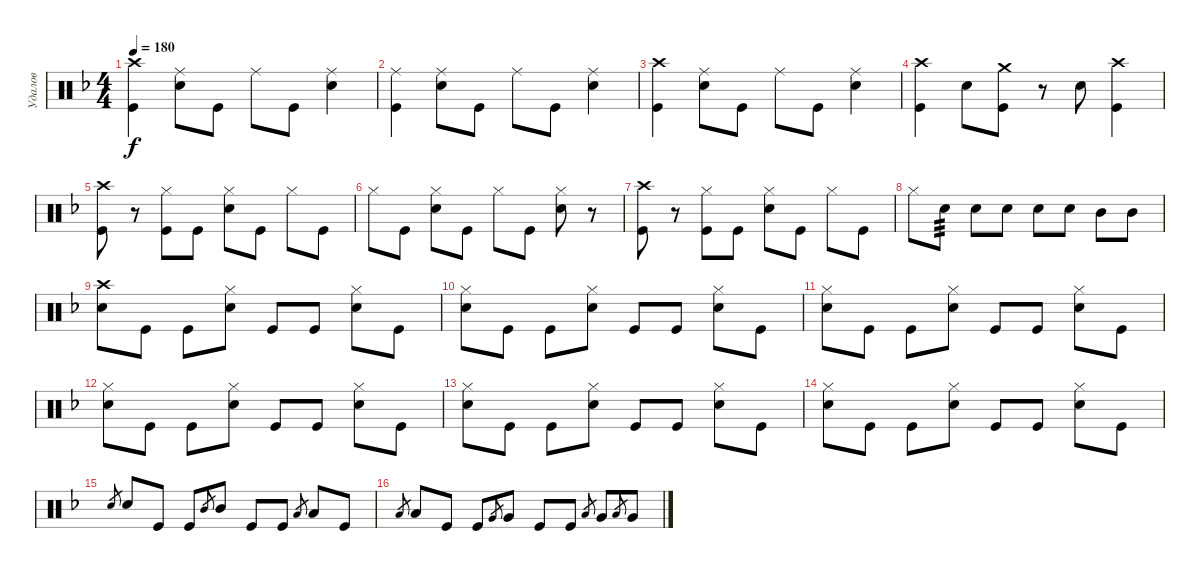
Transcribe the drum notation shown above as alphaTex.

\track ("Удалов" "Удалов") {instrument percussion}
\staff {score}
\articulation defaults
\ts (4 4)
\tempo 180
\clef neutral
\ks f
("Crash high (hit)" "Kick (hit)").4{dy f} ("Ride (middle)" "Electric Snare (hit)").8 "Kick (hit)".8 "Ride (middle)".8 "Kick (hit)".8 ("Ride (middle)" "Electric Snare (hit)").4 |
("Ride (middle)" "Kick (hit)").4 ("Ride (middle)" "Electric Snare (hit)").8 "Kick (hit)".8 "Ride (middle)".8 "Kick (hit)".8 ("Ride (middle)" "Electric Snare (hit)").4 |
("Crash high (hit)" "Kick (hit)").4 ("Ride (middle)" "Electric Snare (hit)").8 "Kick (hit)".8 "Ride (middle)".8 "Kick (hit)".8 ("Ride (middle)" "Electric Snare (hit)").4 |
("Crash high (hit)" "Kick (hit)").4 "Electric Snare (hit)".8 ("Crash medium (hit)" "Kick (hit)").8 r.8 "Electric Snare (hit)".8 ("Crash high (hit)" "Kick (hit)").4 |
("Crash high (hit)" "Kick (hit)").8 r.8 ("Hi-Hat (closed)" "Kick (hit)").8 "Kick (hit)".8 ("Hi-Hat (closed)" "Electric Snare (hit)").8 "Kick (hit)".8 "Hi-Hat (closed)".8 "Kick (hit)".8 |
"Hi-Hat (closed)".8 "Kick (hit)".8 ("Hi-Hat (closed)" "Electric Snare (hit)").8 "Kick (hit)".8 "Hi-Hat (closed)".8 "Kick (hit)".8 ("Hi-Hat (closed)" "Electric Snare (hit)").8 r.8 |
("Crash high (hit)" "Kick (hit)").8 r.8 ("Hi-Hat (closed)" "Kick (hit)").8 "Kick (hit)".8 ("Hi-Hat (closed)" "Electric Snare (hit)").8 "Kick (hit)".8 "Hi-Hat (closed)".8 "Kick (hit)".8 |
"Hi-Hat (closed)".8 "Electric Snare (hit)".8{tp 3} "Electric Snare (hit)".8 "Electric Snare (hit)".8 "Electric Snare (hit)".8 "Electric Snare (hit)".8 "Mid Tom (hit)".8 "Mid Tom (hit)".8 |
("Crash high (hit)" "Electric Snare (hit)").8 "Kick (hit)".8 "Kick (hit)".8 ("Hi-Hat (closed)" "Electric Snare (hit)").8 "Kick (hit)".8 "Kick (hit)".8 ("Hi-Hat (closed)" "Electric Snare (hit)").8 "Kick (hit)".8 |
("Hi-Hat (closed)" "Electric Snare (hit)").8 "Kick (hit)".8 "Kick (hit)".8 ("Hi-Hat (closed)" "Electric Snare (hit)").8 "Kick (hit)".8 "Kick (hit)".8 ("Hi-Hat (closed)" "Electric Snare (hit)").8 "Kick (hit)".8 |
("Hi-Hat (closed)" "Electric Snare (hit)").8 "Kick (hit)".8 "Kick (hit)".8 ("Hi-Hat (closed)" "Electric Snare (hit)").8 "Kick (hit)".8 "Kick (hit)".8 ("Hi-Hat (closed)" "Electric Snare (hit)").8 "Kick (hit)".8 |
("Hi-Hat (closed)" "Electric Snare (hit)").8 "Kick (hit)".8 "Kick (hit)".8 ("Hi-Hat (closed)" "Electric Snare (hit)").8 "Kick (hit)".8 "Kick (hit)".8 ("Hi-Hat (closed)" "Electric Snare (hit)").8 "Kick (hit)".8 |
("Hi-Hat (closed)" "Electric Snare (hit)").8 "Kick (hit)".8 "Kick (hit)".8 ("Hi-Hat (closed)" "Electric Snare (hit)").8 "Kick (hit)".8 "Kick (hit)".8 ("Hi-Hat (closed)" "Electric Snare (hit)").8 "Kick (hit)".8 |
("Hi-Hat (closed)" "Electric Snare (hit)").8 "Kick (hit)".8 "Kick (hit)".8 ("Hi-Hat (closed)" "Electric Snare (hit)").8 "Kick (hit)".8 "Kick (hit)".8 ("Hi-Hat (closed)" "Electric Snare (hit)").8 "Kick (hit)".8 |
"Electric Snare (hit)".8{gr} "Electric Snare (hit)".8 "Kick (hit)".8 "Kick (hit)".8 "Mid Tom (hit)".8{gr} "Mid Tom (hit)".8 "Kick (hit)".8 "Kick (hit)".8 "Low Tom (hit)".8{gr} "Low Tom (hit)".8 "Kick (hit)".8 |
"Low Tom (hit)".8{gr} "Low Tom (hit)".8 "Kick (hit)".8 "Kick (hit)".8 "Very Low Tom (hit)".8{gr} "Very Low Tom (hit)".8 "Kick (hit)".8 "Kick (hit)".8 "Low Floor Tom (hit)".8{gr} "Very Low Tom (hit)".8 "Low Floor Tom (hit)".8{gr} "Very Low Tom (hit)".8
